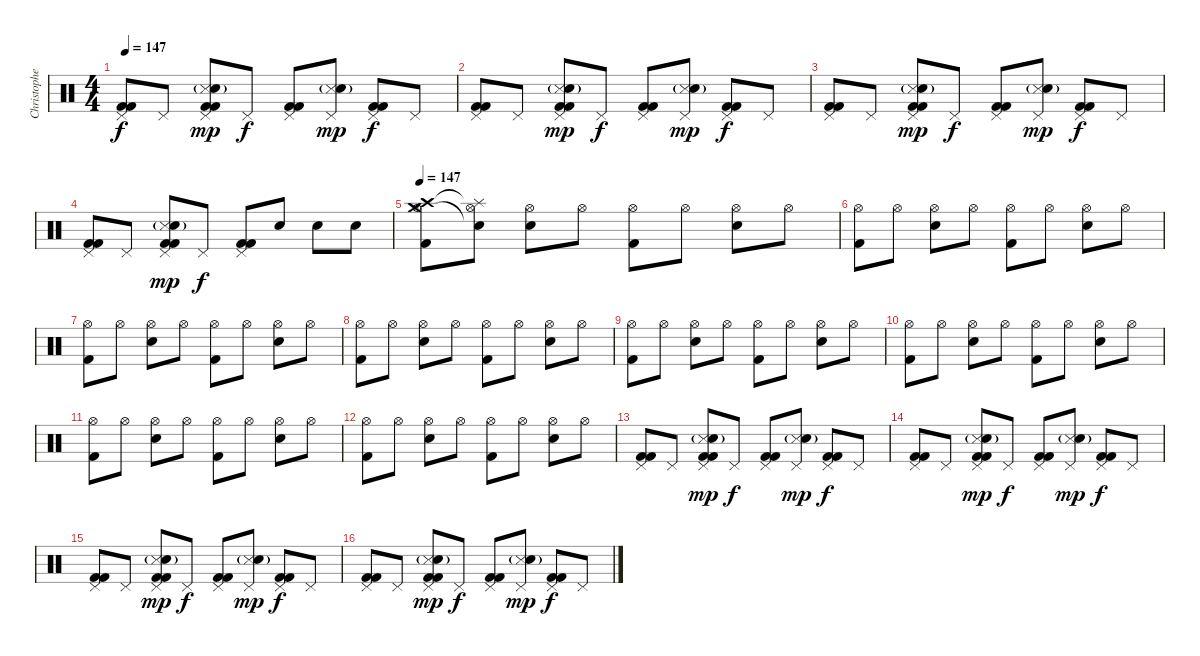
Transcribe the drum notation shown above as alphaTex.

\track ("Christopher Schneider  (Drums)" "Christophe") {instrument percussion}
\staff {score}
\articulation defaults
\ts (4 4)
\tempo 147
\clef neutral
\ks c
("Pedal Hi-Hat (hit)" "Kick (hit) 2" "Kick (hit) 2").8{dy f} "Pedal Hi-Hat (hit)".8 ("Pedal Hi-Hat (hit)" "Snare (side stick) 3" "Electric Snare (hit)"{g} "Kick (hit) 2" "Kick (hit) 2").8{dy mp} "Pedal Hi-Hat (hit)".8{dy f} ("Pedal Hi-Hat (hit)" "Kick (hit) 2" "Kick (hit) 2").8 ("Pedal Hi-Hat (hit)" "Snare (side stick) 3" "Electric Snare (hit)"{g}).8{dy mp} ("Pedal Hi-Hat (hit)" "Kick (hit) 2" "Kick (hit) 2").8{dy f} "Pedal Hi-Hat (hit)".8 |
("Pedal Hi-Hat (hit)" "Kick (hit) 2" "Kick (hit) 2").8 "Pedal Hi-Hat (hit)".8 ("Pedal Hi-Hat (hit)" "Snare (side stick) 3" "Electric Snare (hit)"{g} "Kick (hit) 2" "Kick (hit) 2").8{dy mp} "Pedal Hi-Hat (hit)".8{dy f} ("Pedal Hi-Hat (hit)" "Kick (hit) 2" "Kick (hit) 2").8 ("Pedal Hi-Hat (hit)" "Snare (side stick) 3" "Electric Snare (hit)"{g}).8{dy mp} ("Pedal Hi-Hat (hit)" "Kick (hit) 2" "Kick (hit) 2").8{dy f} "Pedal Hi-Hat (hit)".8 |
("Pedal Hi-Hat (hit)" "Kick (hit) 2" "Kick (hit) 2").8 "Pedal Hi-Hat (hit)".8 ("Pedal Hi-Hat (hit)" "Snare (side stick) 3" "Electric Snare (hit)"{g} "Kick (hit) 2" "Kick (hit) 2").8{dy mp} "Pedal Hi-Hat (hit)".8{dy f} ("Pedal Hi-Hat (hit)" "Kick (hit) 2" "Kick (hit) 2").8 ("Pedal Hi-Hat (hit)" "Snare (side stick) 3" "Electric Snare (hit)"{g}).8{dy mp} ("Pedal Hi-Hat (hit)" "Kick (hit) 2" "Kick (hit) 2").8{dy f} "Pedal Hi-Hat (hit)".8 |
("Pedal Hi-Hat (hit)" "Kick (hit) 2" "Kick (hit) 2").8 "Pedal Hi-Hat (hit)".8 ("Pedal Hi-Hat (hit)" "Snare (side stick) 3" "Electric Snare (hit)"{g} "Kick (hit) 2" "Kick (hit) 2").8{dy mp} "Pedal Hi-Hat (hit)".8{dy f} ("Pedal Hi-Hat (hit)" "Kick (hit) 2" "Kick (hit) 2").8 "Electric Snare (hit)".8 "Electric Snare (hit)".8 "Electric Snare (hit)".8 |
\tempo 147
("Crash high (hit)" "Hi-Hat (open)" "Crash medium (hit)" "Kick (hit) 2").8 ("Splash (hit)"{t} "Hi-Hat (open)" "Snare (hit)"{t}).8 ("Hi-Hat (open)" "Electric Snare (hit)").8 "Hi-Hat (open)".8 ("Hi-Hat (open)" "Kick (hit) 2").8 "Hi-Hat (open)".8 ("Hi-Hat (open)" "Electric Snare (hit)").8 "Hi-Hat (open)".8 |
("Hi-Hat (open)" "Kick (hit) 2").8 "Hi-Hat (open)".8 ("Hi-Hat (open)" "Electric Snare (hit)").8 "Hi-Hat (open)".8 ("Hi-Hat (open)" "Kick (hit) 2").8 "Hi-Hat (open)".8 ("Hi-Hat (open)" "Electric Snare (hit)").8 "Hi-Hat (open)".8 |
("Hi-Hat (open)" "Kick (hit) 2").8 "Hi-Hat (open)".8 ("Hi-Hat (open)" "Electric Snare (hit)").8 "Hi-Hat (open)".8 ("Hi-Hat (open)" "Kick (hit) 2").8 "Hi-Hat (open)".8 ("Hi-Hat (open)" "Electric Snare (hit)").8 "Hi-Hat (open)".8 |
("Hi-Hat (open)" "Kick (hit) 2").8 "Hi-Hat (open)".8 ("Hi-Hat (open)" "Electric Snare (hit)").8 "Hi-Hat (open)".8 ("Hi-Hat (open)" "Kick (hit) 2").8 "Hi-Hat (open)".8 ("Hi-Hat (open)" "Electric Snare (hit)").8 "Hi-Hat (open)".8 |
("Hi-Hat (open)" "Kick (hit) 2").8 "Hi-Hat (open)".8 ("Hi-Hat (open)" "Electric Snare (hit)").8 "Hi-Hat (open)".8 ("Hi-Hat (open)" "Kick (hit) 2").8 "Hi-Hat (open)".8 ("Hi-Hat (open)" "Electric Snare (hit)").8 "Hi-Hat (open)".8 |
("Hi-Hat (open)" "Kick (hit) 2").8 "Hi-Hat (open)".8 ("Hi-Hat (open)" "Electric Snare (hit)").8 "Hi-Hat (open)".8 ("Hi-Hat (open)" "Kick (hit) 2").8 "Hi-Hat (open)".8 ("Hi-Hat (open)" "Electric Snare (hit)").8 "Hi-Hat (open)".8 |
("Hi-Hat (open)" "Kick (hit) 2").8 "Hi-Hat (open)".8 ("Hi-Hat (open)" "Electric Snare (hit)").8 "Hi-Hat (open)".8 ("Hi-Hat (open)" "Kick (hit) 2").8 "Hi-Hat (open)".8 ("Hi-Hat (open)" "Electric Snare (hit)").8 "Hi-Hat (open)".8 |
("Hi-Hat (open)" "Kick (hit) 2").8 "Hi-Hat (open)".8 ("Hi-Hat (open)" "Electric Snare (hit)").8 "Hi-Hat (open)".8 ("Hi-Hat (open)" "Kick (hit) 2").8 "Hi-Hat (open)".8 ("Hi-Hat (open)" "Electric Snare (hit)").8 "Hi-Hat (open)".8 |
("Pedal Hi-Hat (hit)" "Kick (hit) 2" "Kick (hit) 2").8 "Pedal Hi-Hat (hit)".8 ("Pedal Hi-Hat (hit)" "Snare (side stick) 3" "Electric Snare (hit)"{g} "Kick (hit) 2" "Kick (hit) 2").8{dy mp} "Pedal Hi-Hat (hit)".8{dy f} ("Pedal Hi-Hat (hit)" "Kick (hit) 2" "Kick (hit) 2").8 ("Pedal Hi-Hat (hit)" "Snare (side stick) 3" "Electric Snare (hit)"{g}).8{dy mp} ("Pedal Hi-Hat (hit)" "Kick (hit) 2" "Kick (hit) 2").8{dy f} "Pedal Hi-Hat (hit)".8 |
("Pedal Hi-Hat (hit)" "Kick (hit) 2" "Kick (hit) 2").8 "Pedal Hi-Hat (hit)".8 ("Pedal Hi-Hat (hit)" "Snare (side stick) 3" "Electric Snare (hit)"{g} "Kick (hit) 2" "Kick (hit) 2").8{dy mp} "Pedal Hi-Hat (hit)".8{dy f} ("Pedal Hi-Hat (hit)" "Kick (hit) 2" "Kick (hit) 2").8 ("Pedal Hi-Hat (hit)" "Snare (side stick) 3" "Electric Snare (hit)"{g}).8{dy mp} ("Pedal Hi-Hat (hit)" "Kick (hit) 2" "Kick (hit) 2").8{dy f} "Pedal Hi-Hat (hit)".8 |
("Pedal Hi-Hat (hit)" "Kick (hit) 2" "Kick (hit) 2").8 "Pedal Hi-Hat (hit)".8 ("Pedal Hi-Hat (hit)" "Snare (side stick) 3" "Electric Snare (hit)"{g} "Kick (hit) 2" "Kick (hit) 2").8{dy mp} "Pedal Hi-Hat (hit)".8{dy f} ("Pedal Hi-Hat (hit)" "Kick (hit) 2" "Kick (hit) 2").8 ("Pedal Hi-Hat (hit)" "Snare (side stick) 3" "Electric Snare (hit)"{g}).8{dy mp} ("Pedal Hi-Hat (hit)" "Kick (hit) 2" "Kick (hit) 2").8{dy f} "Pedal Hi-Hat (hit)".8 |
("Pedal Hi-Hat (hit)" "Kick (hit) 2" "Kick (hit) 2").8 "Pedal Hi-Hat (hit)".8 ("Pedal Hi-Hat (hit)" "Snare (side stick) 3" "Electric Snare (hit)"{g} "Kick (hit) 2" "Kick (hit) 2").8{dy mp} "Pedal Hi-Hat (hit)".8{dy f} ("Pedal Hi-Hat (hit)" "Kick (hit) 2" "Kick (hit) 2").8 ("Pedal Hi-Hat (hit)" "Snare (side stick) 3" "Electric Snare (hit)"{g}).8{dy mp} ("Pedal Hi-Hat (hit)" "Kick (hit) 2" "Kick (hit) 2").8{dy f} "Pedal Hi-Hat (hit)".8
